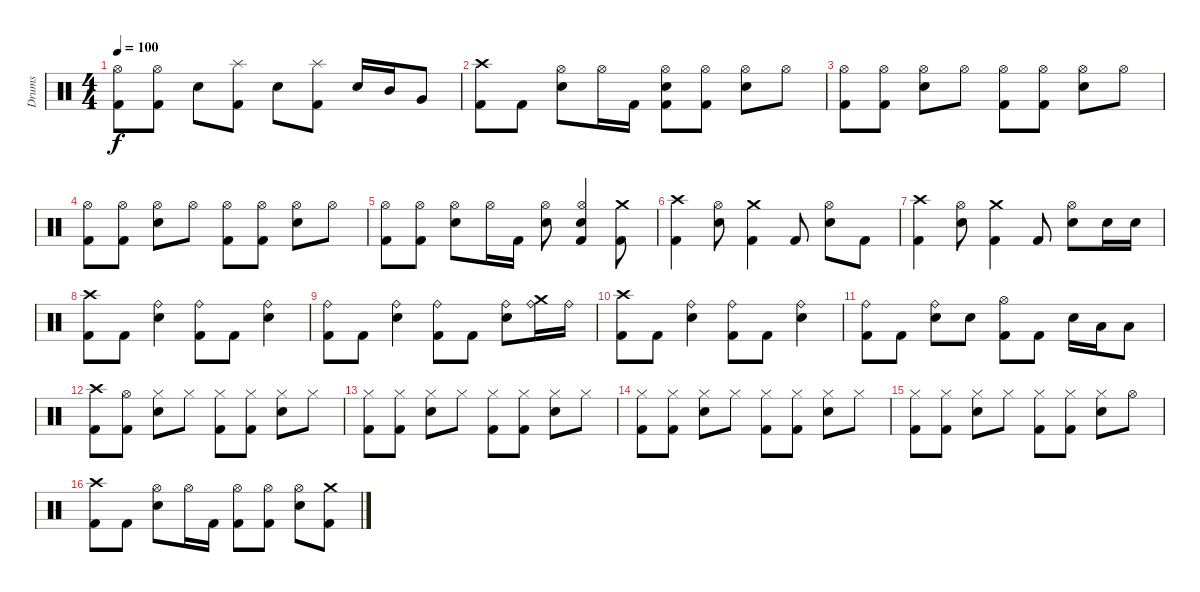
\track ("Drums" "Drums") {instrument percussion}
\staff {score}
\articulation defaults
\ts (4 4)
\tempo 100
\clef neutral
\ks c
("Kick (hit) 2" "Hi-Hat (open)").8{dy f} ("Kick (hit) 2" "Hi-Hat (open)").8 "Snare (hit) 2".8 ("Kick (hit) 2" "Splash (hit)").8 "Snare (hit) 2".8 ("Kick (hit) 2" "Splash (hit)").8 "Snare (hit) 2".16 "Mid Tom (hit)".16 "Very Low Tom (hit)".8 |
("Kick (hit) 2" "Crash high (hit)").8 "Kick (hit) 2".8 ("Hi-Hat (open)" "Snare (hit) 2").8 "Hi-Hat (open)".16 "Kick (hit) 2".16 ("Snare (hit)" "Kick (hit) 2" "Hi-Hat (open)").8 ("Kick (hit) 2" "Hi-Hat (open)").8 ("Hi-Hat (open)" "Snare (hit) 2").8 "Hi-Hat (open)".8 |
("Kick (hit) 2" "Hi-Hat (open)").8 ("Kick (hit) 2" "Hi-Hat (open)").8 ("Hi-Hat (open)" "Snare (hit) 2").8 "Hi-Hat (open)".8 ("Kick (hit) 2" "Hi-Hat (open)").8 ("Kick (hit) 2" "Hi-Hat (open)").8 ("Hi-Hat (open)" "Snare (hit) 2").8 "Hi-Hat (open)".8 |
("Kick (hit) 2" "Hi-Hat (open)").8 ("Kick (hit) 2" "Hi-Hat (open)").8 ("Hi-Hat (open)" "Snare (hit) 2").8 "Hi-Hat (open)".8 ("Kick (hit) 2" "Hi-Hat (open)").8 ("Kick (hit) 2" "Hi-Hat (open)").8 ("Hi-Hat (open)" "Snare (hit) 2").8 "Hi-Hat (open)".8 |
("Kick (hit) 2" "Hi-Hat (open)").8 ("Kick (hit) 2" "Hi-Hat (open)").8 ("Hi-Hat (open)" "Snare (hit) 2").8 "Hi-Hat (open)".16 "Kick (hit) 2".16 ("Hi-Hat (open)" "Snare (hit) 2").8 ("Kick (hit) 2" "Hi-Hat (open)" "Snare (hit) 2").4 ("Kick (hit) 2" "Crash medium (hit)").8 |
("Kick (hit) 2" "Crash high (hit)").4 ("Hi-Hat (open)" "Snare (hit) 2").8 ("Kick (hit) 2" "Crash medium (hit)").4 "Kick (hit) 2".8 ("Hi-Hat (open)" "Snare (hit) 2").8 "Kick (hit) 2".8 |
("Kick (hit) 2" "Crash high (hit)").4 ("Hi-Hat (open)" "Snare (hit) 2").8 ("Kick (hit) 2" "Crash medium (hit)").4 "Kick (hit) 2".8 ("Hi-Hat (open)" "Snare (hit) 2").8 "Snare (hit) 2".16 "Snare (hit) 2".16 |
("Kick (hit) 2" "Crash high (hit)").8 "Kick (hit) 2".8 ("Ride (bell)" "Snare (hit) 2").4 ("Kick (hit) 2" "Ride (bell)").8 "Kick (hit) 2".8 ("Ride (bell)" "Snare (hit) 2").4 |
("Kick (hit) 2" "Ride (bell)").8 "Kick (hit) 2".8 ("Ride (bell)" "Snare (hit) 2").4 ("Kick (hit) 2" "Ride (bell)").8 "Kick (hit) 2".8 ("Ride (bell)" "Snare (hit) 2").8 ("Ride (bell)" "Crash medium (hit)").16 "Ride (bell)".16 |
("Kick (hit) 2" "Crash high (hit)").8 "Kick (hit) 2".8 ("Ride (bell)" "Snare (hit) 2").4 ("Kick (hit) 2" "Ride (bell)").8 "Kick (hit) 2".8 ("Ride (bell)" "Snare (hit) 2").4 |
("Kick (hit) 2" "Ride (bell)").8 "Kick (hit) 2".8 ("Ride (bell)" "Snare (hit) 2").8 "Snare (hit) 2".8 ("Kick (hit) 2" "Hi-Hat (open)").8 "Kick (hit) 2".8 "Snare (hit) 2".16 "Low Tom (hit)".16 "Low Floor Tom (hit)".8 |
("Kick (hit) 2" "Crash high (hit)").8 ("Kick (hit) 2" "Hi-Hat (open)").8 ("Hi-Hat (closed)" "Snare (hit) 2").8 "Hi-Hat (closed)".8 ("Kick (hit) 2" "Hi-Hat (closed)").8 ("Kick (hit) 2" "Hi-Hat (closed)").8 ("Hi-Hat (closed)" "Snare (hit) 2").8 "Hi-Hat (closed)".8 |
("Kick (hit) 2" "Hi-Hat (closed)").8 ("Kick (hit) 2" "Hi-Hat (closed)").8 ("Hi-Hat (closed)" "Snare (hit) 2").8 "Hi-Hat (closed)".8 ("Kick (hit) 2" "Hi-Hat (closed)").8 ("Kick (hit) 2" "Hi-Hat (closed)").8 ("Hi-Hat (closed)" "Snare (hit) 2").8 "Hi-Hat (closed)".8 |
("Kick (hit) 2" "Hi-Hat (closed)").8 ("Kick (hit) 2" "Hi-Hat (closed)").8 ("Hi-Hat (closed)" "Snare (hit) 2").8 "Hi-Hat (closed)".8 ("Kick (hit) 2" "Hi-Hat (closed)").8 ("Kick (hit) 2" "Hi-Hat (closed)").8 ("Hi-Hat (closed)" "Snare (hit) 2").8 "Hi-Hat (closed)".8 |
("Kick (hit) 2" "Hi-Hat (closed)").8 ("Kick (hit) 2" "Hi-Hat (closed)").8 ("Hi-Hat (closed)" "Snare (hit) 2").8 "Hi-Hat (closed)".8 ("Kick (hit) 2" "Hi-Hat (closed)").8 ("Kick (hit) 2" "Hi-Hat (closed)").8 ("Hi-Hat (closed)" "Snare (hit) 2").8 "Hi-Hat (open)".8 |
("Kick (hit) 2" "Crash high (hit)").8 "Kick (hit) 2".8 ("Hi-Hat (open)" "Snare (hit) 2").8 "Hi-Hat (open)".16 "Kick (hit) 2".16 ("Kick (hit) 2" "Hi-Hat (open)").8 ("Kick (hit) 2" "Hi-Hat (open)").8 ("Hi-Hat (open)" "Snare (hit) 2").8 ("Kick (hit) 2" "Crash medium (hit)").8
